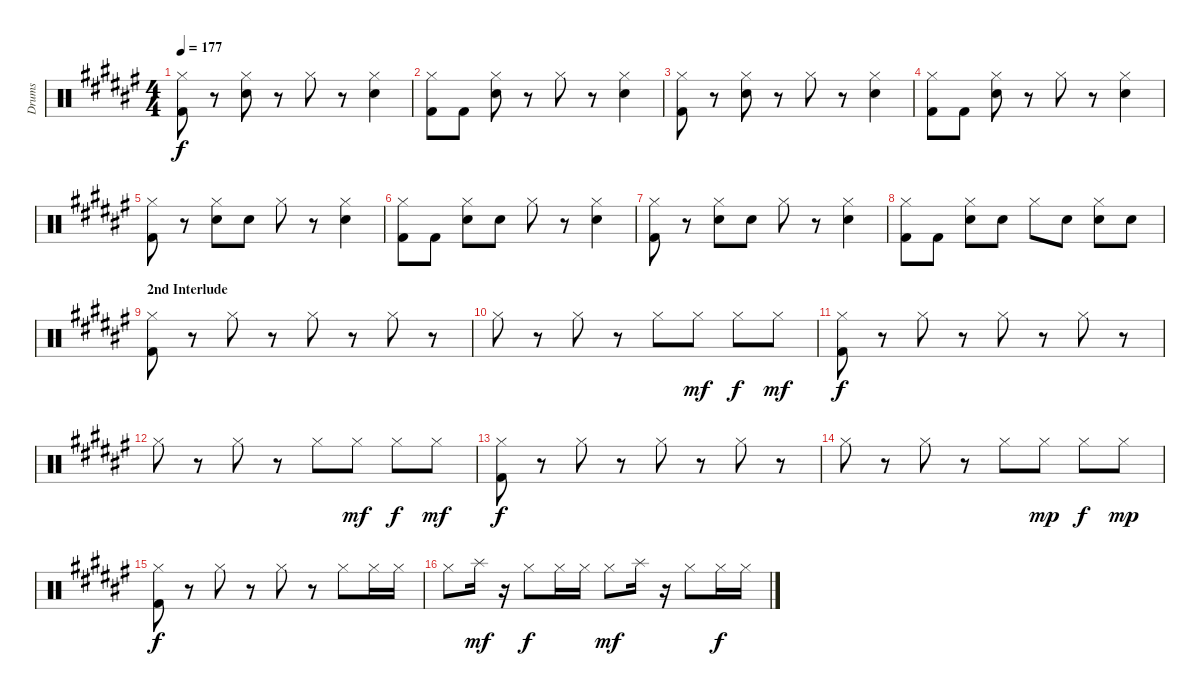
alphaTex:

\track ("Drums" "Drums") {instrument percussion}
\staff {score}
\articulation defaults
\ts (4 4)
\tempo 177
\clef neutral
\ks d#minor
("Hi-Hat (closed)" "Kick (hit) 2").8{dy f} r.8 ("Hi-Hat (closed)" "Snare (hit) 2").8 r.8 "Hi-Hat (closed)".8 r.8 ("Hi-Hat (closed)" "Snare (hit) 2").4 |
("Hi-Hat (closed)" "Kick (hit) 2").8 "Kick (hit) 2".8 ("Hi-Hat (closed)" "Snare (hit) 2").8 r.8 "Hi-Hat (closed)".8 r.8 ("Hi-Hat (closed)" "Snare (hit) 2").4 |
("Hi-Hat (closed)" "Kick (hit) 2").8 r.8 ("Hi-Hat (closed)" "Snare (hit) 2").8 r.8 "Hi-Hat (closed)".8 r.8 ("Hi-Hat (closed)" "Snare (hit) 2").4 |
("Hi-Hat (closed)" "Kick (hit) 2").8 "Kick (hit) 2".8 ("Hi-Hat (closed)" "Snare (hit) 2").8 r.8 "Hi-Hat (closed)".8 r.8 ("Hi-Hat (closed)" "Snare (hit) 2").4 |
("Hi-Hat (closed)" "Kick (hit) 2").8 r.8 ("Hi-Hat (closed)" "Snare (hit) 2").8 "Snare (hit) 2".8 "Hi-Hat (closed)".8 r.8 ("Hi-Hat (closed)" "Snare (hit) 2").4 |
("Hi-Hat (closed)" "Kick (hit) 2").8 "Kick (hit) 2".8 ("Hi-Hat (closed)" "Snare (hit) 2").8 "Snare (hit) 2".8 "Hi-Hat (closed)".8 r.8 ("Hi-Hat (closed)" "Snare (hit) 2").4 |
("Hi-Hat (closed)" "Kick (hit) 2").8 r.8 ("Hi-Hat (closed)" "Snare (hit) 2").8 "Snare (hit) 2".8 "Hi-Hat (closed)".8 r.8 ("Hi-Hat (closed)" "Snare (hit) 2").4 |
("Hi-Hat (closed)" "Kick (hit) 2").8 "Kick (hit) 2".8 ("Hi-Hat (closed)" "Snare (hit) 2").8 "Snare (hit) 2".8 "Hi-Hat (closed)".8 "Snare (hit) 2".8 ("Hi-Hat (closed)" "Snare (hit) 2").8 "Snare (hit) 2".8 |
\section ("" "2nd Interlude")
("Hi-Hat (closed)" "Kick (hit) 2").8 r.8 "Hi-Hat (closed)".8 r.8 "Hi-Hat (closed)".8 r.8 "Hi-Hat (closed)".8 r.8 |
"Hi-Hat (closed)".8 r.8 "Hi-Hat (closed)".8 r.8 "Hi-Hat (closed)".8 "Hi-Hat (closed)".8{dy mf} "Hi-Hat (closed)".8{dy f} "Hi-Hat (closed)".8{dy mf} |
("Hi-Hat (closed)" "Kick (hit) 2").8{dy f} r.8 "Hi-Hat (closed)".8 r.8 "Hi-Hat (closed)".8 r.8 "Hi-Hat (closed)".8 r.8 |
"Hi-Hat (closed)".8 r.8 "Hi-Hat (closed)".8 r.8 "Hi-Hat (closed)".8 "Hi-Hat (closed)".8{dy mf} "Hi-Hat (closed)".8{dy f} "Hi-Hat (closed)".8{dy mf} |
("Hi-Hat (closed)" "Kick (hit) 2").8{dy f} r.8 "Hi-Hat (closed)".8 r.8 "Hi-Hat (closed)".8 r.8 "Hi-Hat (closed)".8 r.8 |
"Hi-Hat (closed)".8 r.8 "Hi-Hat (closed)".8 r.8 "Hi-Hat (closed)".8 "Hi-Hat (closed)".8{dy mp} "Hi-Hat (closed)".8{dy f} "Hi-Hat (closed)".8{dy mp} |
("Hi-Hat (closed)" "Kick (hit) 2").8{dy f} r.8 "Hi-Hat (closed)".8 r.8 "Hi-Hat (closed)".8 r.8 "Hi-Hat (closed)".8 "Hi-Hat (closed)".16 "Hi-Hat (closed)".16 |
"Hi-Hat (closed)".8 "Splash (hit)".16{dy mf} r.16 "Hi-Hat (closed)".8{dy f} "Hi-Hat (closed)".16 "Hi-Hat (closed)".16 "Hi-Hat (closed)".8{dy mf} "Splash (hit)".16 r.16 "Hi-Hat (closed)".8 "Hi-Hat (closed)".16{dy f} "Hi-Hat (closed)".16
